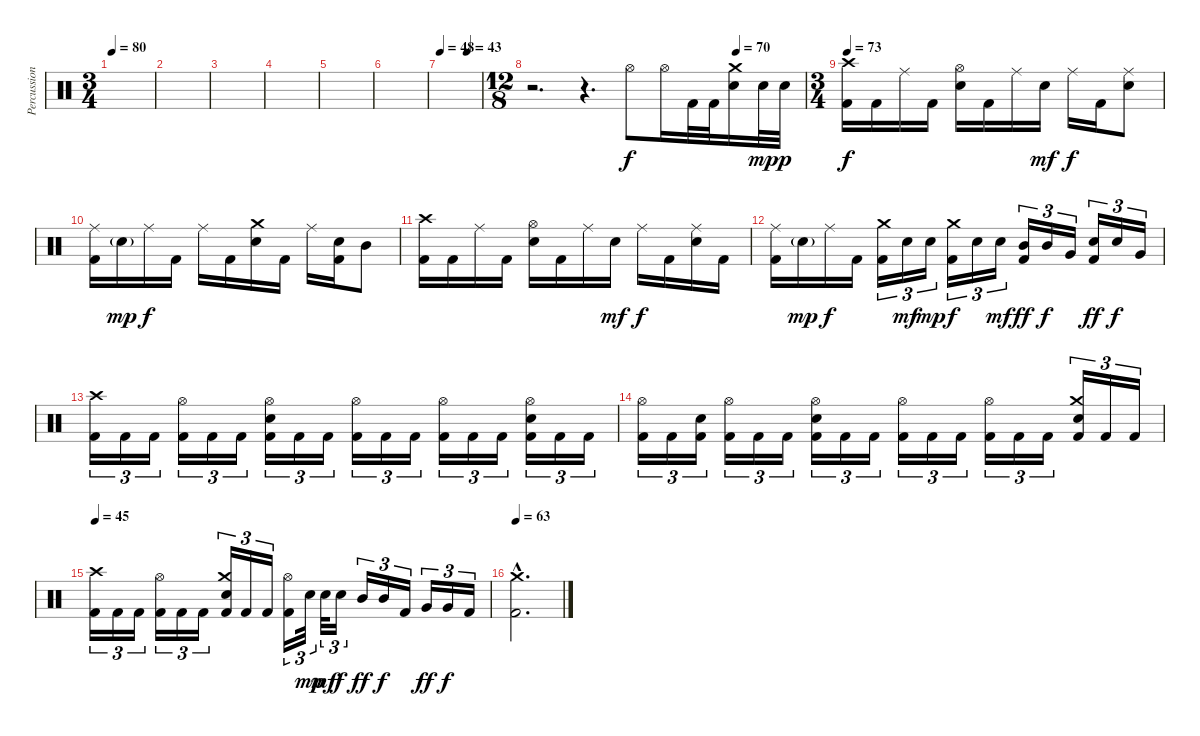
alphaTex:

\track ("Percussion" "Percussion") {instrument percussion}
\staff {score}
\articulation defaults
\ts (3 4)
\tempo 80
\tempo 60
\tempo 80
\clef neutral
\ks c
|
|
|
|
|
|
\tempo 48
\tempo (43 0.6666666666666666)
|
\ts (12 8)
\tempo (70 0.75)
r.2{d} r.4{d} "Hi-Hat (open)".8 "Hi-Hat (open)".16 "Kick (hit) 2".32 "Kick (hit) 2".32 ("Crash medium (hit)" "Electric Snare (hit)").16 "Electric Snare (hit)".32{dy mp} "Electric Snare (hit)".32{dy p} |
\ts (3 4)
\tempo 73
("Crash high (hit)" "Kick (hit) 2").16{dy f volume 12} "Kick (hit) 2".16 "Ride (middle)".16 "Kick (hit) 2".16 ("Hi-Hat (open)" "Electric Snare (hit)").16 "Kick (hit) 2".16 "Ride (middle)".16 "Electric Snare (hit)".16{dy mf} "Ride (middle)".16{dy f} "Kick (hit) 2".16 ("Ride (middle)" "Electric Snare (hit)").8 |
("Ride (middle)" "Kick (hit) 2").16{volume 12} "Electric Snare (hit)"{g}.16{dy mp} "Ride (middle)".16{dy f} "Kick (hit) 2".16 "Ride (middle)".16 "Kick (hit) 2".16 ("Crash medium (hit)" "Electric Snare (hit)").16 "Kick (hit) 2".16 "Ride (middle)".16 ("Electric Snare (hit)" "Kick (hit) 2").16 "Mid Tom (hit)".8 |
("Crash high (hit)" "Kick (hit) 2").16{volume 12} "Kick (hit) 2".16 "Ride (middle)".16 "Kick (hit) 2".16 ("Hi-Hat (open)" "Electric Snare (hit)").16 "Kick (hit) 2".16 "Ride (middle)".16 "Electric Snare (hit)".16{dy mf} "Ride (middle)".16{dy f} "Kick (hit) 2".16 ("Ride (middle)" "Electric Snare (hit)").16 "Kick (hit) 2".16 |
("Ride (middle)" "Kick (hit) 2").16 "Electric Snare (hit)"{g}.16{dy mp} "Ride (middle)".16{dy f} "Kick (hit) 2".16 ("Crash medium (hit)" "Kick (hit) 2").16{tu (3 2)} "Electric Snare (hit)".16{tu (3 2) dy mf} "Electric Snare (hit)".16{tu (3 2) dy mp} ("Crash medium (hit)" "Kick (hit) 2").16{tu (3 2) dy f} "Electric Snare (hit)".16{tu (3 2)} "Electric Snare (hit)".16{tu (3 2) dy mf} ("Mid Tom (hit)" "Kick (hit) 2").16{tu (3 2) dy ff} "Mid Tom (hit)".16{tu (3 2) dy f} "Very Low Tom (hit)".16{tu (3 2)} ("Electric Snare (hit)" "Kick (hit) 2").16{tu (3 2) dy ff} "Electric Snare (hit)".16{tu (3 2) dy f} "Very Low Tom (hit)".16{tu (3 2)} |
("Crash high (hit)" "Kick (hit) 2").16{tu (3 2)} "Kick (hit) 2".16{tu (3 2)} "Kick (hit) 2".16{tu (3 2)} ("Hi-Hat (open)" "Kick (hit) 2").16{tu (3 2)} "Kick (hit) 2".16{tu (3 2)} "Kick (hit) 2".16{tu (3 2)} ("Hi-Hat (open)" "Electric Snare (hit)" "Kick (hit) 2").16{tu (3 2)} "Kick (hit) 2".16{tu (3 2)} "Kick (hit) 2".16{tu (3 2)} ("Hi-Hat (open)" "Kick (hit) 2").16{tu (3 2)} "Kick (hit) 2".16{tu (3 2)} "Kick (hit) 2".16{tu (3 2)} ("Hi-Hat (open)" "Kick (hit) 2").16{tu (3 2)} "Kick (hit) 2".16{tu (3 2)} "Kick (hit) 2".16{tu (3 2)} ("Hi-Hat (open)" "Electric Snare (hit)" "Kick (hit) 2").16{tu (3 2)} "Kick (hit) 2".16{tu (3 2)} "Kick (hit) 2".16{tu (3 2)} |
("Hi-Hat (open)" "Kick (hit) 2").16{tu (3 2)} "Kick (hit) 2".16{tu (3 2)} ("Electric Snare (hit)" "Kick (hit) 2").16{tu (3 2)} ("Hi-Hat (open)" "Kick (hit) 2").16{tu (3 2)} "Kick (hit) 2".16{tu (3 2)} "Kick (hit) 2".16{tu (3 2)} ("Hi-Hat (open)" "Electric Snare (hit)" "Kick (hit) 2").16{tu (3 2)} "Kick (hit) 2".16{tu (3 2)} "Kick (hit) 2".16{tu (3 2)} ("Hi-Hat (open)" "Kick (hit) 2").16{tu (3 2)} "Kick (hit) 2".16{tu (3 2)} "Kick (hit) 2".16{tu (3 2)} ("Hi-Hat (open)" "Kick (hit) 2").16{tu (3 2)} "Kick (hit) 2".16{tu (3 2)} "Kick (hit) 2".16{tu (3 2)} ("Crash medium (hit)" "Electric Snare (hit)" "Kick (hit) 2").16{tu (3 2)} "Kick (hit) 2".16{tu (3 2)} "Kick (hit) 2".16{tu (3 2)} |
\tempo 45
("Crash high (hit)" "Kick (hit) 2").16{tu (3 2)} "Kick (hit) 2".16{tu (3 2)} "Kick (hit) 2".16{tu (3 2)} ("Hi-Hat (open)" "Kick (hit) 2").16{tu (3 2)} "Kick (hit) 2".16{tu (3 2)} "Kick (hit) 2".16{tu (3 2)} ("Crash medium (hit)" "Electric Snare (hit)" "Kick (hit) 2").16{tu (3 2)} "Kick (hit) 2".16{tu (3 2)} "Kick (hit) 2".16{tu (3 2)} ("Hi-Hat (open)" "Kick (hit) 2").16{tu (3 2)} "Electric Snare (hit)".32{tu (3 2) dy mp} "Electric Snare (hit)".32{tu (3 2) dy mf} "Electric Snare (hit)".16{tu (3 2) dy f} "Mid Tom (hit)".16{tu (3 2) dy ff} "Mid Tom (hit)".16{tu (3 2) dy f} "Kick (hit) 2".16{tu (3 2)} "Very Low Tom (hit)".16{tu (3 2) dy ff} "Very Low Tom (hit)".16{tu (3 2) dy f} "Kick (hit) 2".16{tu (3 2)} |
\tempo 63
("Crash medium (hit)"{hac} "Kick (hit) 2"{hac}).2{d}
